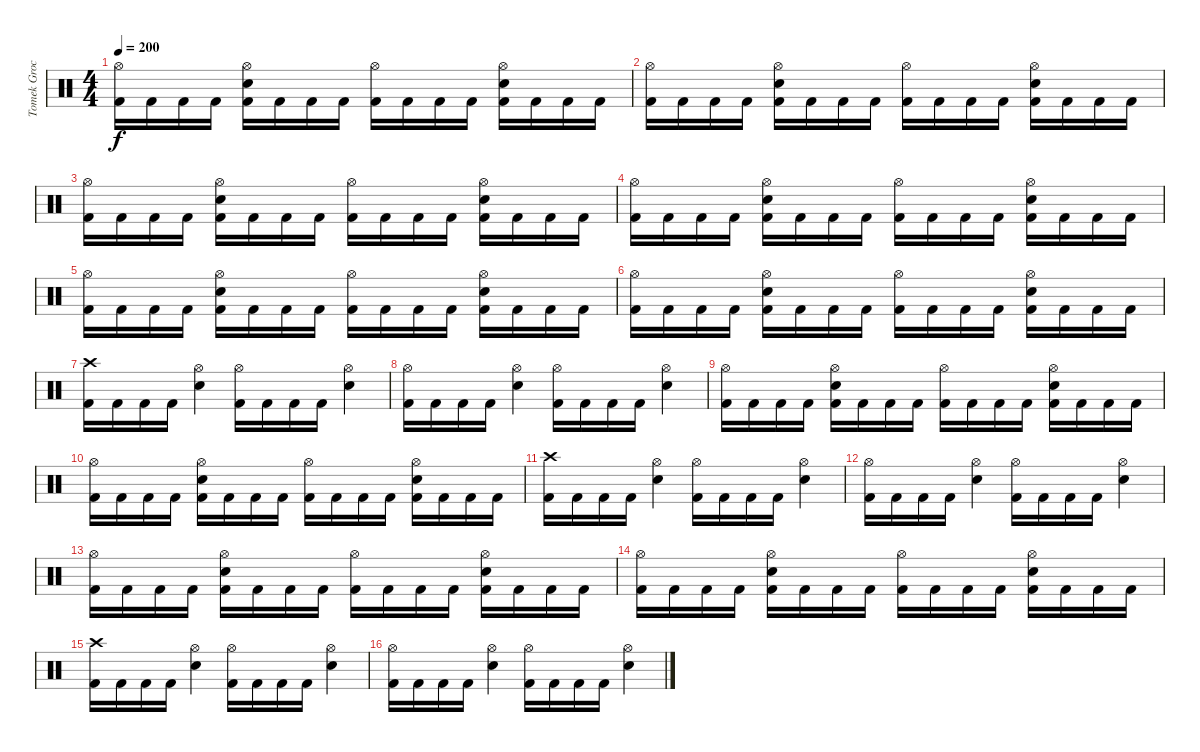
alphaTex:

\track ("Tomek Grochowski" "Tomek Groc") {instrument percussion}
\staff {score}
\articulation defaults
\ts (4 4)
\tempo 200
\clef neutral
\ks c
("Hi-Hat (open)" "Kick (hit) 2").16{dy f} "Kick (hit) 2".16 "Kick (hit) 2".16 "Kick (hit) 2".16 ("Hi-Hat (open)" "Electric Snare (hit)" "Kick (hit) 2").16 "Kick (hit) 2".16 "Kick (hit) 2".16 "Kick (hit) 2".16 ("Hi-Hat (open)" "Kick (hit) 2").16 "Kick (hit) 2".16 "Kick (hit) 2".16 "Kick (hit) 2".16 ("Hi-Hat (open)" "Electric Snare (hit)" "Kick (hit) 2").16 "Kick (hit) 2".16 "Kick (hit) 2".16 "Kick (hit) 2".16 |
("Hi-Hat (open)" "Kick (hit) 2").16 "Kick (hit) 2".16 "Kick (hit) 2".16 "Kick (hit) 2".16 ("Hi-Hat (open)" "Electric Snare (hit)" "Kick (hit) 2").16 "Kick (hit) 2".16 "Kick (hit) 2".16 "Kick (hit) 2".16 ("Hi-Hat (open)" "Kick (hit) 2").16 "Kick (hit) 2".16 "Kick (hit) 2".16 "Kick (hit) 2".16 ("Hi-Hat (open)" "Electric Snare (hit)" "Kick (hit) 2").16 "Kick (hit) 2".16 "Kick (hit) 2".16 "Kick (hit) 2".16 |
("Hi-Hat (open)" "Kick (hit) 2").16 "Kick (hit) 2".16 "Kick (hit) 2".16 "Kick (hit) 2".16 ("Hi-Hat (open)" "Electric Snare (hit)" "Kick (hit) 2").16 "Kick (hit) 2".16 "Kick (hit) 2".16 "Kick (hit) 2".16 ("Hi-Hat (open)" "Kick (hit) 2").16 "Kick (hit) 2".16 "Kick (hit) 2".16 "Kick (hit) 2".16 ("Hi-Hat (open)" "Electric Snare (hit)" "Kick (hit) 2").16 "Kick (hit) 2".16 "Kick (hit) 2".16 "Kick (hit) 2".16 |
("Hi-Hat (open)" "Kick (hit) 2").16 "Kick (hit) 2".16 "Kick (hit) 2".16 "Kick (hit) 2".16 ("Hi-Hat (open)" "Electric Snare (hit)" "Kick (hit) 2").16 "Kick (hit) 2".16 "Kick (hit) 2".16 "Kick (hit) 2".16 ("Hi-Hat (open)" "Kick (hit) 2").16 "Kick (hit) 2".16 "Kick (hit) 2".16 "Kick (hit) 2".16 ("Hi-Hat (open)" "Electric Snare (hit)" "Kick (hit) 2").16 "Kick (hit) 2".16 "Kick (hit) 2".16 "Kick (hit) 2".16 |
("Hi-Hat (open)" "Kick (hit) 2").16 "Kick (hit) 2".16 "Kick (hit) 2".16 "Kick (hit) 2".16 ("Hi-Hat (open)" "Electric Snare (hit)" "Kick (hit) 2").16 "Kick (hit) 2".16 "Kick (hit) 2".16 "Kick (hit) 2".16 ("Hi-Hat (open)" "Kick (hit) 2").16 "Kick (hit) 2".16 "Kick (hit) 2".16 "Kick (hit) 2".16 ("Hi-Hat (open)" "Electric Snare (hit)" "Kick (hit) 2").16 "Kick (hit) 2".16 "Kick (hit) 2".16 "Kick (hit) 2".16 |
("Hi-Hat (open)" "Kick (hit) 2").16 "Kick (hit) 2".16 "Kick (hit) 2".16 "Kick (hit) 2".16 ("Hi-Hat (open)" "Electric Snare (hit)" "Kick (hit) 2").16 "Kick (hit) 2".16 "Kick (hit) 2".16 "Kick (hit) 2".16 ("Hi-Hat (open)" "Kick (hit) 2").16 "Kick (hit) 2".16 "Kick (hit) 2".16 "Kick (hit) 2".16 ("Hi-Hat (open)" "Electric Snare (hit)" "Kick (hit) 2").16 "Kick (hit) 2".16 "Kick (hit) 2".16 "Kick (hit) 2".16 |
("Crash high (hit)" "Kick (hit) 2").16 "Kick (hit) 2".16 "Kick (hit) 2".16 "Kick (hit) 2".16 ("Hi-Hat (open)" "Electric Snare (hit)").4 ("Hi-Hat (open)" "Kick (hit) 2").16 "Kick (hit) 2".16 "Kick (hit) 2".16 "Kick (hit) 2".16 ("Hi-Hat (open)" "Electric Snare (hit)").4 |
("Hi-Hat (open)" "Kick (hit) 2").16 "Kick (hit) 2".16 "Kick (hit) 2".16 "Kick (hit) 2".16 ("Hi-Hat (open)" "Electric Snare (hit)").4 ("Hi-Hat (open)" "Kick (hit) 2").16 "Kick (hit) 2".16 "Kick (hit) 2".16 "Kick (hit) 2".16 ("Hi-Hat (open)" "Electric Snare (hit)").4 |
("Hi-Hat (open)" "Kick (hit) 2").16 "Kick (hit) 2".16 "Kick (hit) 2".16 "Kick (hit) 2".16 ("Hi-Hat (open)" "Electric Snare (hit)" "Kick (hit) 2").16 "Kick (hit) 2".16 "Kick (hit) 2".16 "Kick (hit) 2".16 ("Hi-Hat (open)" "Kick (hit) 2").16 "Kick (hit) 2".16 "Kick (hit) 2".16 "Kick (hit) 2".16 ("Hi-Hat (open)" "Electric Snare (hit)" "Kick (hit) 2").16 "Kick (hit) 2".16 "Kick (hit) 2".16 "Kick (hit) 2".16 |
("Hi-Hat (open)" "Kick (hit) 2").16 "Kick (hit) 2".16 "Kick (hit) 2".16 "Kick (hit) 2".16 ("Hi-Hat (open)" "Electric Snare (hit)" "Kick (hit) 2").16 "Kick (hit) 2".16 "Kick (hit) 2".16 "Kick (hit) 2".16 ("Hi-Hat (open)" "Kick (hit) 2").16 "Kick (hit) 2".16 "Kick (hit) 2".16 "Kick (hit) 2".16 ("Hi-Hat (open)" "Electric Snare (hit)" "Kick (hit) 2").16 "Kick (hit) 2".16 "Kick (hit) 2".16 "Kick (hit) 2".16 |
("Crash high (hit)" "Kick (hit) 2").16 "Kick (hit) 2".16 "Kick (hit) 2".16 "Kick (hit) 2".16 ("Hi-Hat (open)" "Electric Snare (hit)").4 ("Hi-Hat (open)" "Kick (hit) 2").16 "Kick (hit) 2".16 "Kick (hit) 2".16 "Kick (hit) 2".16 ("Hi-Hat (open)" "Electric Snare (hit)").4 |
("Hi-Hat (open)" "Kick (hit) 2").16 "Kick (hit) 2".16 "Kick (hit) 2".16 "Kick (hit) 2".16 ("Hi-Hat (open)" "Electric Snare (hit)").4 ("Hi-Hat (open)" "Kick (hit) 2").16 "Kick (hit) 2".16 "Kick (hit) 2".16 "Kick (hit) 2".16 ("Hi-Hat (open)" "Electric Snare (hit)").4 |
("Hi-Hat (open)" "Kick (hit) 2").16 "Kick (hit) 2".16 "Kick (hit) 2".16 "Kick (hit) 2".16 ("Hi-Hat (open)" "Electric Snare (hit)" "Kick (hit) 2").16 "Kick (hit) 2".16 "Kick (hit) 2".16 "Kick (hit) 2".16 ("Hi-Hat (open)" "Kick (hit) 2").16 "Kick (hit) 2".16 "Kick (hit) 2".16 "Kick (hit) 2".16 ("Hi-Hat (open)" "Electric Snare (hit)" "Kick (hit) 2").16 "Kick (hit) 2".16 "Kick (hit) 2".16 "Kick (hit) 2".16 |
("Hi-Hat (open)" "Kick (hit) 2").16 "Kick (hit) 2".16 "Kick (hit) 2".16 "Kick (hit) 2".16 ("Hi-Hat (open)" "Electric Snare (hit)" "Kick (hit) 2").16 "Kick (hit) 2".16 "Kick (hit) 2".16 "Kick (hit) 2".16 ("Hi-Hat (open)" "Kick (hit) 2").16 "Kick (hit) 2".16 "Kick (hit) 2".16 "Kick (hit) 2".16 ("Hi-Hat (open)" "Electric Snare (hit)" "Kick (hit) 2").16 "Kick (hit) 2".16 "Kick (hit) 2".16 "Kick (hit) 2".16 |
("Crash high (hit)" "Kick (hit) 2").16 "Kick (hit) 2".16 "Kick (hit) 2".16 "Kick (hit) 2".16 ("Hi-Hat (open)" "Electric Snare (hit)").4 ("Hi-Hat (open)" "Kick (hit) 2").16 "Kick (hit) 2".16 "Kick (hit) 2".16 "Kick (hit) 2".16 ("Hi-Hat (open)" "Electric Snare (hit)").4 |
("Hi-Hat (open)" "Kick (hit) 2").16 "Kick (hit) 2".16 "Kick (hit) 2".16 "Kick (hit) 2".16 ("Hi-Hat (open)" "Electric Snare (hit)").4 ("Hi-Hat (open)" "Kick (hit) 2").16 "Kick (hit) 2".16 "Kick (hit) 2".16 "Kick (hit) 2".16 ("Hi-Hat (open)" "Electric Snare (hit)").4
